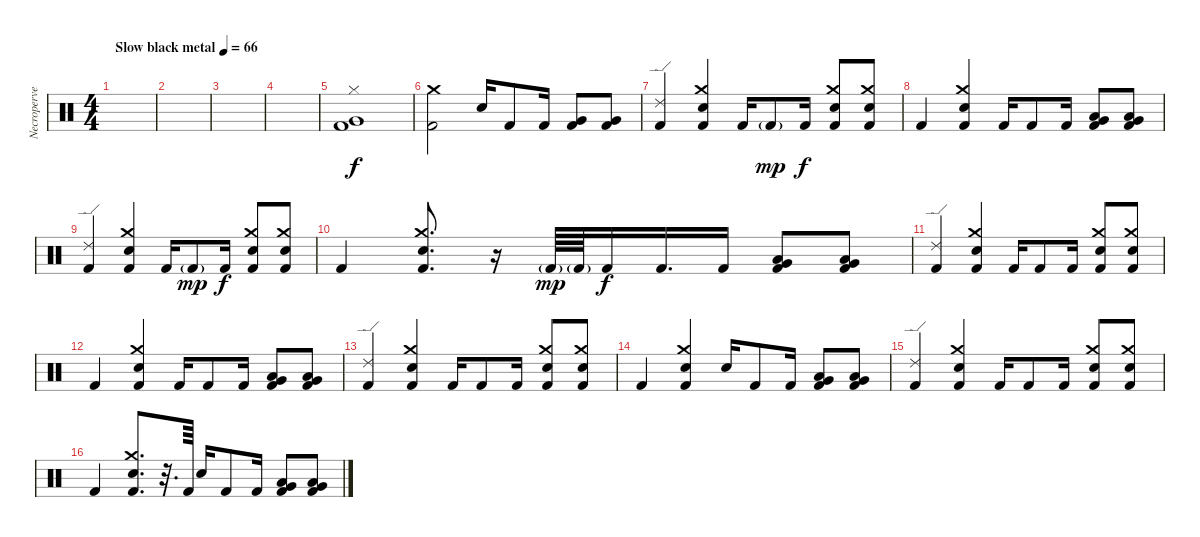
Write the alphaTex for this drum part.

\track ("Necroperversor" "Necroperve") {instrument percussion}
\staff {score}
\articulation defaults
\ts (4 4)
\tempo (66 "Slow black metal")
\clef neutral
\ks c
|
|
|
|
("Hi-Hat (closed)" "Very Low Tom (hit)" "Kick (hit) 2").1 |
("Crash medium (hit)" "Kick (hit) 2").2 "Electric Snare (hit)".16 "Kick (hit) 2".8 "Kick (hit) 2".16 ("Very Low Tom (hit)" "Kick (hit) 2").8 ("Very Low Tom (hit)" "Kick (hit) 2").8 |
("Ride (edge) 2" "Kick (hit) 2").4 ("Crash medium (hit)" "Electric Snare (hit)" "Kick (hit) 2").4 "Kick (hit) 2".16 "Kick (hit) 2"{g}.8{dy mp} "Kick (hit) 2".16{dy f} ("Crash medium (hit)" "Electric Snare (hit)" "Kick (hit) 2").8 ("Crash medium (hit)" "Electric Snare (hit)" "Kick (hit) 2").8 |
"Kick (hit) 2".4 ("Crash medium (hit)" "Electric Snare (hit)" "Kick (hit) 2").4 "Kick (hit) 2".16 "Kick (hit) 2".8 "Kick (hit) 2".16 ("Low Tom (hit)" "Very Low Tom (hit)" "Kick (hit) 2").8 ("Low Tom (hit)" "Very Low Tom (hit)" "Kick (hit) 2").8 |
("Ride (edge) 2" "Kick (hit) 2").4 ("Crash medium (hit)" "Electric Snare (hit)" "Kick (hit) 2").4 "Kick (hit) 2".16 "Kick (hit) 2"{g}.8{dy mp} "Kick (hit) 2".16{dy f} ("Crash medium (hit)" "Electric Snare (hit)" "Kick (hit) 2").8 ("Crash medium (hit)" "Electric Snare (hit)" "Kick (hit) 2").8 |
"Kick (hit) 2".4 ("Crash medium (hit)" "Electric Snare (hit)" "Kick (hit) 2").8{d} r.16 "Kick (hit) 2"{g}.64{dy mp} "Kick (hit) 2"{g}.64 "Kick (hit) 2".16{dy f} "Kick (hit) 2".16{d} "Kick (hit) 2".16 ("Low Tom (hit)" "Very Low Tom (hit)" "Kick (hit) 2").8 ("Low Tom (hit)" "Very Low Tom (hit)" "Kick (hit) 2").8 |
("Ride (edge) 2" "Kick (hit) 2").4 ("Crash medium (hit)" "Electric Snare (hit)" "Kick (hit) 2").4 "Kick (hit) 2".16 "Kick (hit) 2".8 "Kick (hit) 2".16 ("Crash medium (hit)" "Electric Snare (hit)" "Kick (hit) 2").8 ("Crash medium (hit)" "Electric Snare (hit)" "Kick (hit) 2").8 |
"Kick (hit) 2".4 ("Crash medium (hit)" "Electric Snare (hit)" "Kick (hit) 2").4 "Kick (hit) 2".16 "Kick (hit) 2".8 "Kick (hit) 2".16 ("Low Tom (hit)" "Very Low Tom (hit)" "Kick (hit) 2").8 ("Low Tom (hit)" "Very Low Tom (hit)" "Kick (hit) 2").8 |
("Ride (edge) 2" "Kick (hit) 2").4 ("Crash medium (hit)" "Electric Snare (hit)" "Kick (hit) 2").4 "Kick (hit) 2".16 "Kick (hit) 2".8 "Kick (hit) 2".16 ("Crash medium (hit)" "Electric Snare (hit)" "Kick (hit) 2").8 ("Crash medium (hit)" "Electric Snare (hit)" "Kick (hit) 2").8 |
"Kick (hit) 2".4 ("Crash medium (hit)" "Electric Snare (hit)" "Kick (hit) 2").4 "Electric Snare (hit)".16 "Kick (hit) 2".8 "Kick (hit) 2".16 ("Low Tom (hit)" "Very Low Tom (hit)" "Kick (hit) 2").8 ("Low Tom (hit)" "Very Low Tom (hit)" "Kick (hit) 2").8 |
("Ride (edge) 2" "Kick (hit) 2").4 ("Crash medium (hit)" "Electric Snare (hit)" "Kick (hit) 2").4 "Kick (hit) 2".16 "Kick (hit) 2".8 "Kick (hit) 2".16 ("Crash medium (hit)" "Electric Snare (hit)" "Kick (hit) 2").8 ("Crash medium (hit)" "Electric Snare (hit)" "Kick (hit) 2").8 |
"Kick (hit) 2".4 ("Crash medium (hit)" "Electric Snare (hit)" "Kick (hit) 2").8{d} r.32{d} "Kick (hit) 2".64 "Electric Snare (hit)".16 "Kick (hit) 2".8 "Kick (hit) 2".16 ("Low Tom (hit)" "Very Low Tom (hit)" "Kick (hit) 2").8 ("Low Tom (hit)" "Very Low Tom (hit)" "Kick (hit) 2").8
